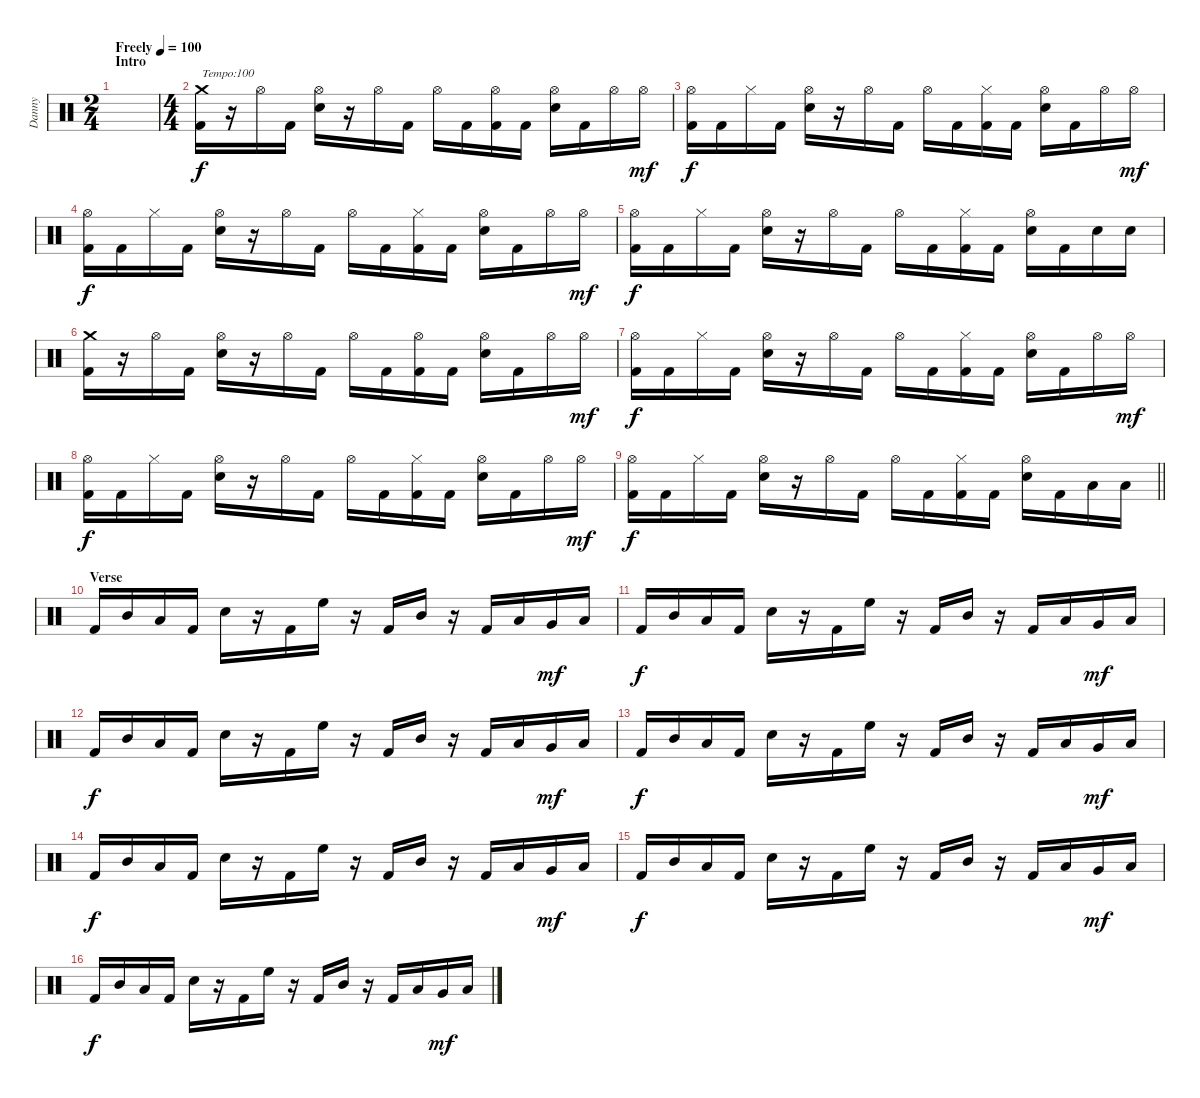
\track ("Danny" "Danny") {instrument percussion}
\staff {score}
\articulation defaults
\ts (2 4)
\section ("" "Intro")
\tempo (100 "Freely")
\clef neutral
\ks c
|
\ts (4 4)
("Crash medium (hit)" "Kick (hit) 2").16{txt "Tempo:100"} r.16 "Hi-Hat (open)".16{dy f} "Kick (hit) 2".16 ("Hi-Hat (open)" "Electric Snare (hit)").16 r.16 "Hi-Hat (open)".16 "Kick (hit) 2".16 "Hi-Hat (open)".16 "Kick (hit) 2".16 ("Hi-Hat (open)" "Kick (hit) 2").16 "Kick (hit) 2".16 ("Hi-Hat (open)" "Electric Snare (hit)").16 "Kick (hit) 2".16 "Hi-Hat (open)".16 "Hi-Hat (open)".16{dy mf} |
("Hi-Hat (open)" "Kick (hit) 2").16{dy f} "Kick (hit) 2".16 "Hi-Hat (closed)".16 "Kick (hit) 2".16 ("Hi-Hat (open)" "Electric Snare (hit)").16 r.16 "Hi-Hat (open)".16 "Kick (hit) 2".16 "Hi-Hat (open)".16 "Kick (hit) 2".16 ("Hi-Hat (closed)" "Kick (hit) 2").16 "Kick (hit) 2".16 ("Hi-Hat (open)" "Electric Snare (hit)").16 "Kick (hit) 2".16 "Hi-Hat (open)".16 "Hi-Hat (open)".16{dy mf} |
("Hi-Hat (open)" "Kick (hit) 2").16{dy f} "Kick (hit) 2".16 "Hi-Hat (closed)".16 "Kick (hit) 2".16 ("Hi-Hat (open)" "Electric Snare (hit)").16 r.16 "Hi-Hat (open)".16 "Kick (hit) 2".16 "Hi-Hat (open)".16 "Kick (hit) 2".16 ("Hi-Hat (closed)" "Kick (hit) 2").16 "Kick (hit) 2".16 ("Hi-Hat (open)" "Electric Snare (hit)").16 "Kick (hit) 2".16 "Hi-Hat (open)".16 "Hi-Hat (open)".16{dy mf} |
("Hi-Hat (open)" "Kick (hit) 2").16{dy f} "Kick (hit) 2".16 "Hi-Hat (closed)".16 "Kick (hit) 2".16 ("Hi-Hat (open)" "Electric Snare (hit)").16 r.16 "Hi-Hat (open)".16 "Kick (hit) 2".16 "Hi-Hat (open)".16 "Kick (hit) 2".16 ("Hi-Hat (closed)" "Kick (hit) 2").16 "Kick (hit) 2".16 ("Hi-Hat (open)" "Electric Snare (hit)").16 "Kick (hit) 2".16 "Electric Snare (hit)".16 "Electric Snare (hit)".16 |
("Crash medium (hit)" "Kick (hit) 2").16 r.16 "Hi-Hat (open)".16 "Kick (hit) 2".16 ("Hi-Hat (open)" "Electric Snare (hit)").16 r.16 "Hi-Hat (open)".16 "Kick (hit) 2".16 "Hi-Hat (open)".16 "Kick (hit) 2".16 ("Hi-Hat (open)" "Kick (hit) 2").16 "Kick (hit) 2".16 ("Hi-Hat (open)" "Electric Snare (hit)").16 "Kick (hit) 2".16 "Hi-Hat (open)".16 "Hi-Hat (open)".16{dy mf} |
("Hi-Hat (open)" "Kick (hit) 2").16{dy f} "Kick (hit) 2".16 "Hi-Hat (closed)".16 "Kick (hit) 2".16 ("Hi-Hat (open)" "Electric Snare (hit)").16 r.16 "Hi-Hat (open)".16 "Kick (hit) 2".16 "Hi-Hat (open)".16 "Kick (hit) 2".16 ("Hi-Hat (closed)" "Kick (hit) 2").16 "Kick (hit) 2".16 ("Hi-Hat (open)" "Electric Snare (hit)").16 "Kick (hit) 2".16 "Hi-Hat (open)".16 "Hi-Hat (open)".16{dy mf} |
("Hi-Hat (open)" "Kick (hit) 2").16{dy f} "Kick (hit) 2".16 "Hi-Hat (closed)".16 "Kick (hit) 2".16 ("Hi-Hat (open)" "Electric Snare (hit)").16 r.16 "Hi-Hat (open)".16 "Kick (hit) 2".16 "Hi-Hat (open)".16 "Kick (hit) 2".16 ("Hi-Hat (closed)" "Kick (hit) 2").16 "Kick (hit) 2".16 ("Hi-Hat (open)" "Electric Snare (hit)").16 "Kick (hit) 2".16 "Hi-Hat (open)".16 "Hi-Hat (open)".16{dy mf} |
\barLineRight lightlight
("Hi-Hat (open)" "Kick (hit) 2").16{dy f} "Kick (hit) 2".16 "Hi-Hat (closed)".16 "Kick (hit) 2".16 ("Hi-Hat (open)" "Electric Snare (hit)").16 r.16 "Hi-Hat (open)".16 "Kick (hit) 2".16 "Hi-Hat (open)".16 "Kick (hit) 2".16 ("Hi-Hat (closed)" "Kick (hit) 2").16 "Kick (hit) 2".16 ("Hi-Hat (open)" "Electric Snare (hit)").16 "Kick (hit) 2".16 "Low Tom (hit)".16 "Low Tom (hit)".16 |
\section ("" "Verse")
"Kick (hit) 2".16 "Mid Tom (hit)".16 "Low Tom (hit)".16 "Kick (hit) 2".16 "Electric Snare (hit)".16 r.16 "Kick (hit) 2".16 "High Floor Tom (hit)".16 r.16 "Kick (hit) 2".16 "Mid Tom (hit)".16 r.16 "Kick (hit) 2".16 "Low Tom (hit)".16 "Very Low Tom (hit)".16{dy mf} "Low Floor Tom (hit)".16 |
"Kick (hit) 2".16{dy f} "Mid Tom (hit)".16 "Low Tom (hit)".16 "Kick (hit) 2".16 "Electric Snare (hit)".16 r.16 "Kick (hit) 2".16 "High Floor Tom (hit)".16 r.16 "Kick (hit) 2".16 "Mid Tom (hit)".16 r.16 "Kick (hit) 2".16 "Low Tom (hit)".16 "Very Low Tom (hit)".16{dy mf} "Low Floor Tom (hit)".16 |
"Kick (hit) 2".16{dy f} "Mid Tom (hit)".16 "Low Tom (hit)".16 "Kick (hit) 2".16 "Electric Snare (hit)".16 r.16 "Kick (hit) 2".16 "High Floor Tom (hit)".16 r.16 "Kick (hit) 2".16 "Mid Tom (hit)".16 r.16 "Kick (hit) 2".16 "Low Tom (hit)".16 "Very Low Tom (hit)".16{dy mf} "Low Floor Tom (hit)".16 |
"Kick (hit) 2".16{dy f} "Mid Tom (hit)".16 "Low Tom (hit)".16 "Kick (hit) 2".16 "Electric Snare (hit)".16 r.16 "Kick (hit) 2".16 "High Floor Tom (hit)".16 r.16 "Kick (hit) 2".16 "Mid Tom (hit)".16 r.16 "Kick (hit) 2".16 "Low Tom (hit)".16 "Very Low Tom (hit)".16{dy mf} "Low Floor Tom (hit)".16 |
"Kick (hit) 2".16{dy f} "Mid Tom (hit)".16 "Low Tom (hit)".16 "Kick (hit) 2".16 "Electric Snare (hit)".16 r.16 "Kick (hit) 2".16 "High Floor Tom (hit)".16 r.16 "Kick (hit) 2".16 "Mid Tom (hit)".16 r.16 "Kick (hit) 2".16 "Low Tom (hit)".16 "Very Low Tom (hit)".16{dy mf} "Low Floor Tom (hit)".16 |
"Kick (hit) 2".16{dy f} "Mid Tom (hit)".16 "Low Tom (hit)".16 "Kick (hit) 2".16 "Electric Snare (hit)".16 r.16 "Kick (hit) 2".16 "High Floor Tom (hit)".16 r.16 "Kick (hit) 2".16 "Mid Tom (hit)".16 r.16 "Kick (hit) 2".16 "Low Tom (hit)".16 "Very Low Tom (hit)".16{dy mf} "Low Floor Tom (hit)".16 |
"Kick (hit) 2".16{dy f} "Mid Tom (hit)".16 "Low Tom (hit)".16 "Kick (hit) 2".16 "Electric Snare (hit)".16 r.16 "Kick (hit) 2".16 "High Floor Tom (hit)".16 r.16 "Kick (hit) 2".16 "Mid Tom (hit)".16 r.16 "Kick (hit) 2".16 "Low Tom (hit)".16 "Very Low Tom (hit)".16{dy mf} "Low Floor Tom (hit)".16
